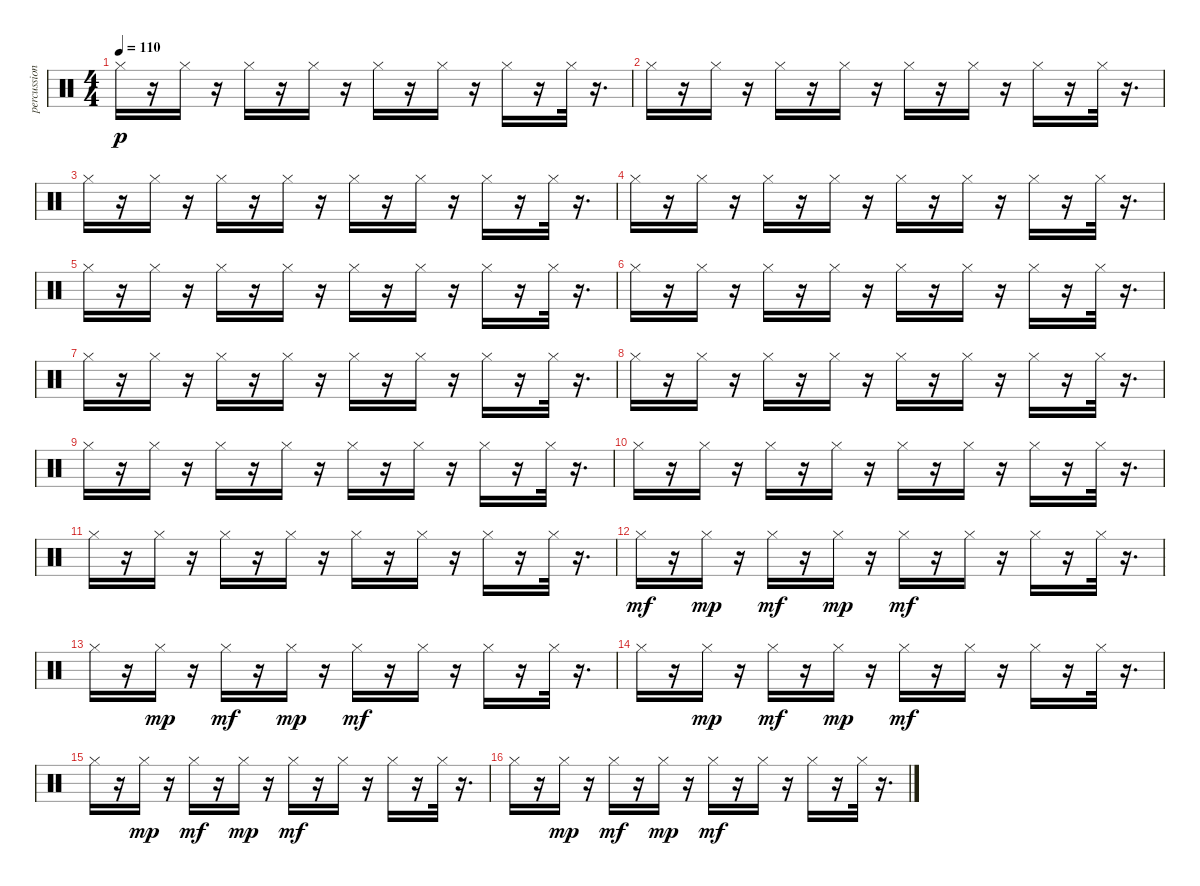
\track ("percussions 2" "percussion") {instrument percussion}
\staff {score}
\articulation defaults
\ts (4 4)
\tempo 110
\clef neutral
\ks c "Hi-Hat (closed)".16{dy p}
r.16 "Hi-Hat (closed)".16 r.16 "Hi-Hat (closed)".16 r.16 "Hi-Hat (closed)".16 r.16 "Hi-Hat (closed)".16 r.16 "Hi-Hat (closed)".16 r.16 "Hi-Hat (closed)".16 r.16 "Hi-Hat (closed)".32 r.16{d} |
"Hi-Hat (closed)".16 r.16 "Hi-Hat (closed)".16 r.16 "Hi-Hat (closed)".16 r.16 "Hi-Hat (closed)".16 r.16 "Hi-Hat (closed)".16 r.16 "Hi-Hat (closed)".16 r.16 "Hi-Hat (closed)".16 r.16 "Hi-Hat (closed)".32 r.16{d} |
"Hi-Hat (closed)".16 r.16 "Hi-Hat (closed)".16 r.16 "Hi-Hat (closed)".16 r.16 "Hi-Hat (closed)".16 r.16 "Hi-Hat (closed)".16 r.16 "Hi-Hat (closed)".16 r.16 "Hi-Hat (closed)".16 r.16 "Hi-Hat (closed)".32 r.16{d} |
"Hi-Hat (closed)".16 r.16 "Hi-Hat (closed)".16 r.16 "Hi-Hat (closed)".16 r.16 "Hi-Hat (closed)".16 r.16 "Hi-Hat (closed)".16 r.16 "Hi-Hat (closed)".16 r.16 "Hi-Hat (closed)".16 r.16 "Hi-Hat (closed)".32 r.16{d} |
"Hi-Hat (closed)".16 r.16 "Hi-Hat (closed)".16 r.16 "Hi-Hat (closed)".16 r.16 "Hi-Hat (closed)".16 r.16 "Hi-Hat (closed)".16 r.16 "Hi-Hat (closed)".16 r.16 "Hi-Hat (closed)".16 r.16 "Hi-Hat (closed)".32 r.16{d} |
"Hi-Hat (closed)".16 r.16 "Hi-Hat (closed)".16 r.16 "Hi-Hat (closed)".16 r.16 "Hi-Hat (closed)".16 r.16 "Hi-Hat (closed)".16 r.16 "Hi-Hat (closed)".16 r.16 "Hi-Hat (closed)".16 r.16 "Hi-Hat (closed)".32 r.16{d} |
"Hi-Hat (closed)".16 r.16 "Hi-Hat (closed)".16 r.16 "Hi-Hat (closed)".16 r.16 "Hi-Hat (closed)".16 r.16 "Hi-Hat (closed)".16 r.16 "Hi-Hat (closed)".16 r.16 "Hi-Hat (closed)".16 r.16 "Hi-Hat (closed)".32 r.16{d} |
"Hi-Hat (closed)".16 r.16 "Hi-Hat (closed)".16 r.16 "Hi-Hat (closed)".16 r.16 "Hi-Hat (closed)".16 r.16 "Hi-Hat (closed)".16 r.16 "Hi-Hat (closed)".16 r.16 "Hi-Hat (closed)".16 r.16 "Hi-Hat (closed)".32 r.16{d} |
"Hi-Hat (closed)".16 r.16 "Hi-Hat (closed)".16 r.16 "Hi-Hat (closed)".16 r.16 "Hi-Hat (closed)".16 r.16 "Hi-Hat (closed)".16 r.16 "Hi-Hat (closed)".16 r.16 "Hi-Hat (closed)".16 r.16 "Hi-Hat (closed)".32 r.16{d} |
"Hi-Hat (closed)".16 r.16 "Hi-Hat (closed)".16 r.16 "Hi-Hat (closed)".16 r.16 "Hi-Hat (closed)".16 r.16 "Hi-Hat (closed)".16 r.16 "Hi-Hat (closed)".16 r.16 "Hi-Hat (closed)".16 r.16 "Hi-Hat (closed)".32 r.16{d} |
"Hi-Hat (closed)".16 r.16 "Hi-Hat (closed)".16 r.16 "Hi-Hat (closed)".16 r.16 "Hi-Hat (closed)".16 r.16 "Hi-Hat (closed)".16 r.16 "Hi-Hat (closed)".16 r.16 "Hi-Hat (closed)".16 r.16 "Hi-Hat (closed)".32 r.16{d} |
"Hi-Hat (closed)".16{dy mf} r.16 "Hi-Hat (closed)".16{dy mp} r.16 "Hi-Hat (closed)".16{dy mf} r.16 "Hi-Hat (closed)".16{dy mp} r.16 "Hi-Hat (closed)".16{dy mf} r.16 "Hi-Hat (closed)".16 r.16 "Hi-Hat (closed)".16 r.16 "Hi-Hat (closed)".32 r.16{d} |
"Hi-Hat (closed)".16 r.16 "Hi-Hat (closed)".16{dy mp} r.16 "Hi-Hat (closed)".16{dy mf} r.16 "Hi-Hat (closed)".16{dy mp} r.16 "Hi-Hat (closed)".16{dy mf} r.16 "Hi-Hat (closed)".16 r.16 "Hi-Hat (closed)".16 r.16 "Hi-Hat (closed)".32 r.16{d} |
"Hi-Hat (closed)".16 r.16 "Hi-Hat (closed)".16{dy mp} r.16 "Hi-Hat (closed)".16{dy mf} r.16 "Hi-Hat (closed)".16{dy mp} r.16 "Hi-Hat (closed)".16{dy mf} r.16 "Hi-Hat (closed)".16 r.16 "Hi-Hat (closed)".16 r.16 "Hi-Hat (closed)".32 r.16{d} |
"Hi-Hat (closed)".16 r.16 "Hi-Hat (closed)".16{dy mp} r.16 "Hi-Hat (closed)".16{dy mf} r.16 "Hi-Hat (closed)".16{dy mp} r.16 "Hi-Hat (closed)".16{dy mf} r.16 "Hi-Hat (closed)".16 r.16 "Hi-Hat (closed)".16 r.16 "Hi-Hat (closed)".32 r.16{d} |
"Hi-Hat (closed)".16 r.16 "Hi-Hat (closed)".16{dy mp} r.16 "Hi-Hat (closed)".16{dy mf} r.16 "Hi-Hat (closed)".16{dy mp} r.16 "Hi-Hat (closed)".16{dy mf} r.16 "Hi-Hat (closed)".16 r.16 "Hi-Hat (closed)".16 r.16 "Hi-Hat (closed)".32 r.16{d}
